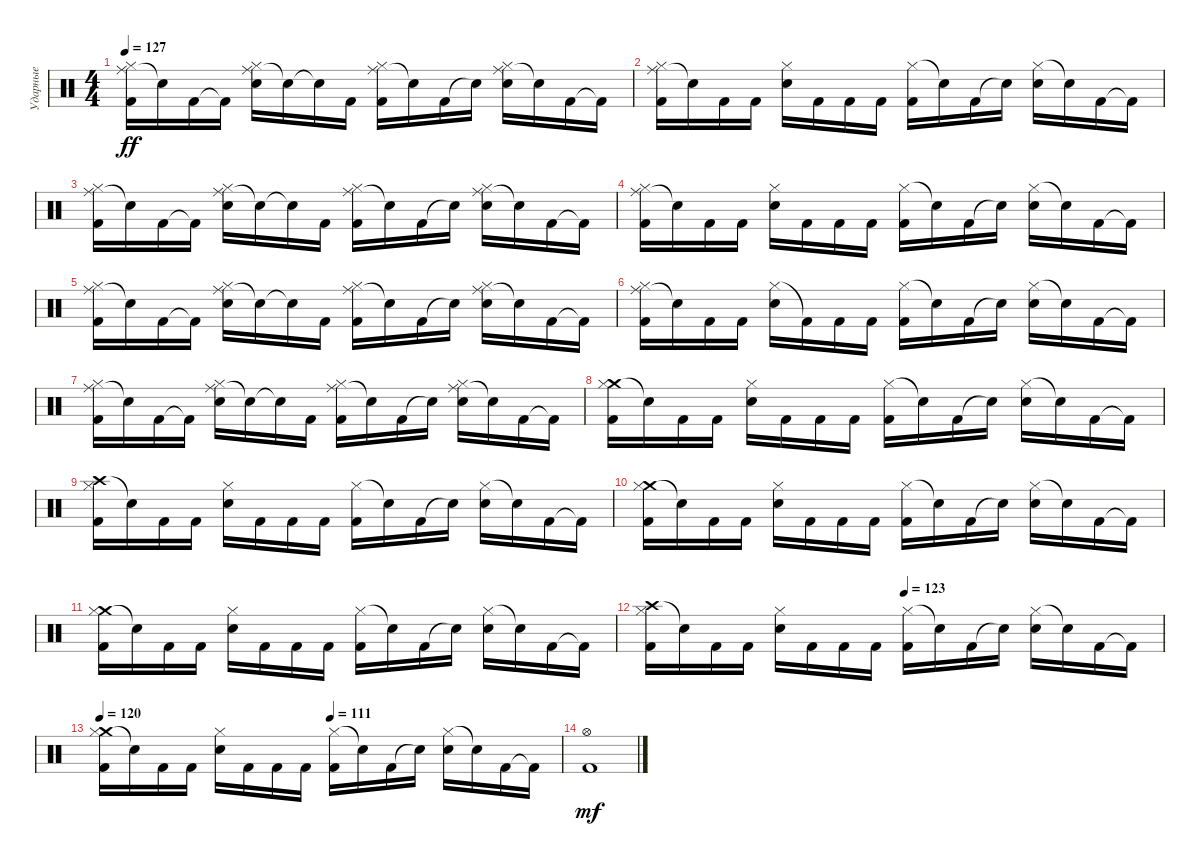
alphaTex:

\track ("Ударные" "Ударные") {instrument percussion}
\staff {score}
\articulation defaults
\ts (4 4)
\tempo 127
\clef neutral
\ks c
("Ride (middle)" "Hi-Hat (closed)" "Kick (hit) 2").16{dy ff} "Snare (hit)"{t}.16 "Kick (hit) 2".16 "Kick (hit) 2"{t}.16 ("Ride (middle)" "Hi-Hat (closed)" "Electric Snare (hit)").16 "Snare (hit)"{t}.16 "Snare (hit)"{t}.16 "Kick (hit) 2".16 ("Ride (middle)" "Hi-Hat (closed)" "Kick (hit) 2").16 "Snare (hit)"{t}.16 "Kick (hit) 2".16 "Snare (hit)"{t}.16 ("Ride (middle)" "Hi-Hat (closed)" "Electric Snare (hit)").16 "Snare (hit)"{t}.16 "Kick (hit) 2".16 "Kick (hit) 2"{t}.16 |
("Ride (middle)" "Hi-Hat (closed)" "Kick (hit) 2").16 "Snare (hit)"{t}.16 "Kick (hit) 2".16 "Kick (hit) 2".16 ("Hi-Hat (closed)" "Electric Snare (hit)").16 "Kick (hit) 2".16 "Kick (hit) 2".16 "Kick (hit) 2".16 ("Hi-Hat (closed)" "Kick (hit) 2").16 "Snare (hit)"{t}.16 "Kick (hit) 2".16 "Snare (hit)"{t}.16 ("Hi-Hat (closed)" "Electric Snare (hit)").16 "Snare (hit)"{t}.16 "Kick (hit) 2".16 "Kick (hit) 2"{t}.16 |
("Ride (middle)" "Hi-Hat (closed)" "Kick (hit) 2").16 "Snare (hit)"{t}.16 "Kick (hit) 2".16 "Kick (hit) 2"{t}.16 ("Ride (middle)" "Hi-Hat (closed)" "Electric Snare (hit)").16 "Snare (hit)"{t}.16 "Snare (hit)"{t}.16 "Kick (hit) 2".16 ("Ride (middle)" "Hi-Hat (closed)" "Kick (hit) 2").16 "Snare (hit)"{t}.16 "Kick (hit) 2".16 "Snare (hit)"{t}.16 ("Ride (middle)" "Hi-Hat (closed)" "Electric Snare (hit)").16 "Snare (hit)"{t}.16 "Kick (hit) 2".16 "Kick (hit) 2"{t}.16 |
("Ride (middle)" "Hi-Hat (closed)" "Kick (hit) 2").16 "Snare (hit)"{t}.16 "Kick (hit) 2".16 "Kick (hit) 2".16 ("Hi-Hat (closed)" "Electric Snare (hit)").16 "Kick (hit) 2".16 "Kick (hit) 2".16 "Kick (hit) 2".16 ("Hi-Hat (closed)" "Kick (hit) 2").16 "Snare (hit)"{t}.16 "Kick (hit) 2".16 "Snare (hit)"{t}.16 ("Hi-Hat (closed)" "Electric Snare (hit)").16 "Snare (hit)"{t}.16 "Kick (hit) 2".16 "Kick (hit) 2"{t}.16 |
("Ride (middle)" "Hi-Hat (closed)" "Kick (hit) 2").16 "Snare (hit)"{t}.16 "Kick (hit) 2".16 "Kick (hit) 2"{t}.16 ("Ride (middle)" "Hi-Hat (closed)" "Electric Snare (hit)").16 "Snare (hit)"{t}.16 "Snare (hit)"{t}.16 "Kick (hit) 2".16 ("Ride (middle)" "Hi-Hat (closed)" "Kick (hit) 2").16 "Snare (hit)"{t}.16 "Kick (hit) 2".16 "Snare (hit)"{t}.16 ("Ride (middle)" "Hi-Hat (closed)" "Electric Snare (hit)").16 "Snare (hit)"{t}.16 "Kick (hit) 2".16 "Kick (hit) 2"{t}.16 |
("Ride (middle)" "Hi-Hat (closed)" "Kick (hit) 2").16 "Snare (hit)"{t}.16 "Kick (hit) 2".16 "Kick (hit) 2".16 ("Hi-Hat (closed)" "Electric Snare (hit)").16 "Kick (hit) 2"{t}.16 "Kick (hit) 2".16 "Kick (hit) 2".16 ("Hi-Hat (closed)" "Kick (hit) 2").16 "Snare (hit)"{t}.16 "Kick (hit) 2".16 "Snare (hit)"{t}.16 ("Hi-Hat (closed)" "Electric Snare (hit)").16 "Snare (hit)"{t}.16 "Kick (hit) 2".16 "Kick (hit) 2"{t}.16 |
("Ride (middle)" "Hi-Hat (closed)" "Kick (hit) 2").16 "Snare (hit)"{t}.16 "Kick (hit) 2".16 "Kick (hit) 2"{t}.16 ("Ride (middle)" "Hi-Hat (closed)" "Electric Snare (hit)").16 "Snare (hit)"{t}.16 "Snare (hit)"{t}.16 "Kick (hit) 2".16 ("Ride (middle)" "Hi-Hat (closed)" "Kick (hit) 2").16 "Snare (hit)"{t}.16 "Kick (hit) 2".16 "Snare (hit)"{t}.16 ("Ride (middle)" "Hi-Hat (closed)" "Electric Snare (hit)").16 "Snare (hit)"{t}.16 "Kick (hit) 2".16 "Kick (hit) 2"{t}.16 |
("Crash medium (hit)" "Hi-Hat (closed)" "Kick (hit) 2").16 "Snare (hit)"{t}.16 "Kick (hit) 2".16 "Kick (hit) 2".16 ("Hi-Hat (closed)" "Electric Snare (hit)").16 "Kick (hit) 2".16 "Kick (hit) 2".16 "Kick (hit) 2".16 ("Hi-Hat (closed)" "Kick (hit) 2").16 "Snare (hit)"{t}.16 "Kick (hit) 2".16 "Snare (hit)"{t}.16 ("Hi-Hat (closed)" "Electric Snare (hit)").16 "Snare (hit)"{t}.16 "Kick (hit) 2".16 "Kick (hit) 2"{t}.16 |
("Crash high (hit)" "Hi-Hat (closed)" "Kick (hit) 2").16 "Snare (hit)"{t}.16 "Kick (hit) 2".16 "Kick (hit) 2".16 ("Hi-Hat (closed)" "Electric Snare (hit)").16 "Kick (hit) 2".16 "Kick (hit) 2".16 "Kick (hit) 2".16 ("Hi-Hat (closed)" "Kick (hit) 2").16 "Snare (hit)"{t}.16 "Kick (hit) 2".16 "Snare (hit)"{t}.16 ("Hi-Hat (closed)" "Electric Snare (hit)").16 "Snare (hit)"{t}.16 "Kick (hit) 2".16 "Kick (hit) 2"{t}.16 |
("Crash medium (hit)" "Hi-Hat (closed)" "Kick (hit) 2").16 "Snare (hit)"{t}.16 "Kick (hit) 2".16 "Kick (hit) 2".16 ("Hi-Hat (closed)" "Electric Snare (hit)").16 "Kick (hit) 2".16 "Kick (hit) 2".16 "Kick (hit) 2".16 ("Hi-Hat (closed)" "Kick (hit) 2").16 "Snare (hit)"{t}.16 "Kick (hit) 2".16 "Snare (hit)"{t}.16 ("Hi-Hat (closed)" "Electric Snare (hit)").16 "Snare (hit)"{t}.16 "Kick (hit) 2".16 "Kick (hit) 2"{t}.16 |
("Crash medium (hit)" "Hi-Hat (closed)" "Kick (hit) 2").16 "Snare (hit)"{t}.16 "Kick (hit) 2".16 "Kick (hit) 2".16 ("Hi-Hat (closed)" "Electric Snare (hit)").16 "Kick (hit) 2".16 "Kick (hit) 2".16 "Kick (hit) 2".16 ("Hi-Hat (closed)" "Kick (hit) 2").16 "Snare (hit)"{t}.16 "Kick (hit) 2".16 "Snare (hit)"{t}.16 ("Hi-Hat (closed)" "Electric Snare (hit)").16 "Snare (hit)"{t}.16 "Kick (hit) 2".16 "Kick (hit) 2"{t}.16 |
\tempo (123 0.5)
("Crash high (hit)" "Hi-Hat (closed)" "Kick (hit) 2").16 "Snare (hit)"{t}.16 "Kick (hit) 2".16 "Kick (hit) 2".16 ("Hi-Hat (closed)" "Electric Snare (hit)").16 "Kick (hit) 2".16 "Kick (hit) 2".16 "Kick (hit) 2".16 ("Hi-Hat (closed)" "Kick (hit) 2").16 "Snare (hit)"{t}.16 "Kick (hit) 2".16 "Snare (hit)"{t}.16 ("Hi-Hat (closed)" "Electric Snare (hit)").16 "Snare (hit)"{t}.16 "Kick (hit) 2".16 "Kick (hit) 2"{t}.16 |
\tempo 120
\tempo (111 0.5)
("Crash medium (hit)" "Hi-Hat (closed)" "Kick (hit) 2").16 "Snare (hit)"{t}.16 "Kick (hit) 2".16 "Kick (hit) 2".16 ("Hi-Hat (closed)" "Electric Snare (hit)").16 "Kick (hit) 2".16 "Kick (hit) 2".16 "Kick (hit) 2".16 ("Hi-Hat (closed)" "Kick (hit) 2").16 "Snare (hit)"{t}.16 "Kick (hit) 2".16 "Snare (hit)"{t}.16 ("Hi-Hat (closed)" "Electric Snare (hit)").16 "Snare (hit)"{t}.16 "Kick (hit) 2".16 "Kick (hit) 2"{t}.16 |
("Hi-Hat (open)" "Kick (hit) 2").1{dy mf}
